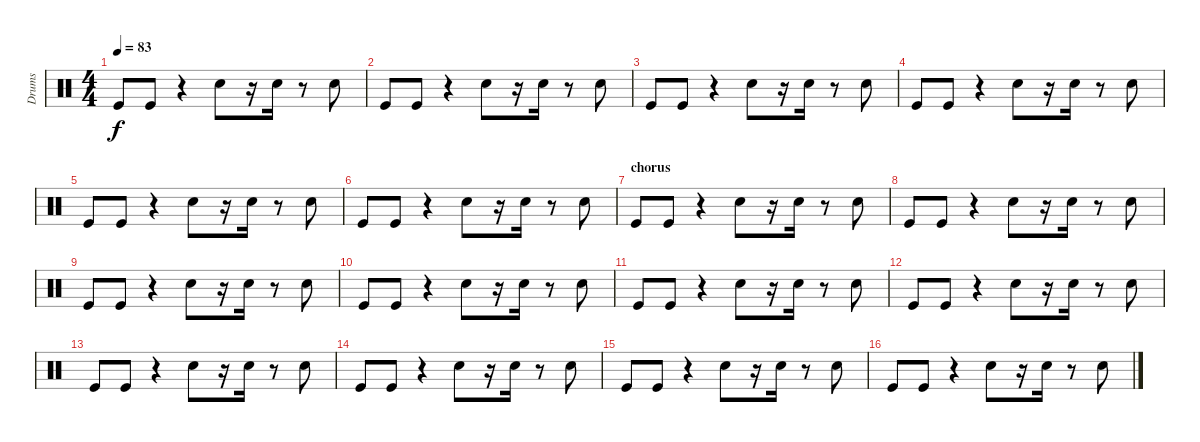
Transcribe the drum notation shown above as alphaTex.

\track ("Drums" "Drums") {instrument percussion}
\staff {score}
\articulation defaults
\ts (4 4)
\tempo 83
\clef neutral
\ks c "Kick (hit)".8{dy f} "Kick (hit)".8
r.4 "Snare (hit) 2".8 r.16 "Electric Snare (hit)".16 r.8 "Electric Snare (hit)".8 |
"Kick (hit)".8 "Kick (hit)".8 r.4 "Snare (hit) 2".8 r.16 "Electric Snare (hit)".16 r.8 "Electric Snare (hit)".8 |
"Kick (hit)".8 "Kick (hit)".8 r.4 "Snare (hit) 2".8 r.16 "Electric Snare (hit)".16 r.8 "Electric Snare (hit)".8 |
"Kick (hit)".8 "Kick (hit)".8 r.4 "Snare (hit) 2".8 r.16 "Electric Snare (hit)".16 r.8 "Electric Snare (hit)".8 |
"Kick (hit)".8 "Kick (hit)".8 r.4 "Snare (hit) 2".8 r.16 "Electric Snare (hit)".16 r.8 "Electric Snare (hit)".8 |
"Kick (hit)".8 "Kick (hit)".8 r.4 "Snare (hit) 2".8 r.16 "Electric Snare (hit)".16 r.8 "Electric Snare (hit)".8 |
\section ("" "chorus")
"Kick (hit)".8 "Kick (hit)".8 r.4 "Snare (hit) 2".8 r.16 "Electric Snare (hit)".16 r.8 "Electric Snare (hit)".8 |
"Kick (hit)".8 "Kick (hit)".8 r.4 "Snare (hit) 2".8 r.16 "Electric Snare (hit)".16 r.8 "Electric Snare (hit)".8 |
"Kick (hit)".8 "Kick (hit)".8 r.4 "Snare (hit) 2".8 r.16 "Electric Snare (hit)".16 r.8 "Electric Snare (hit)".8 |
"Kick (hit)".8 "Kick (hit)".8 r.4 "Snare (hit) 2".8 r.16 "Electric Snare (hit)".16 r.8 "Electric Snare (hit)".8 |
"Kick (hit)".8 "Kick (hit)".8 r.4 "Snare (hit) 2".8 r.16 "Electric Snare (hit)".16 r.8 "Electric Snare (hit)".8 |
"Kick (hit)".8 "Kick (hit)".8 r.4 "Snare (hit) 2".8 r.16 "Electric Snare (hit)".16 r.8 "Electric Snare (hit)".8 |
"Kick (hit)".8 "Kick (hit)".8 r.4 "Snare (hit) 2".8 r.16 "Electric Snare (hit)".16 r.8 "Electric Snare (hit)".8 |
"Kick (hit)".8 "Kick (hit)".8 r.4 "Snare (hit) 2".8 r.16 "Electric Snare (hit)".16 r.8 "Electric Snare (hit)".8 |
"Kick (hit)".8 "Kick (hit)".8 r.4 "Snare (hit) 2".8 r.16 "Electric Snare (hit)".16 r.8 "Electric Snare (hit)".8 |
"Kick (hit)".8 "Kick (hit)".8 r.4 "Snare (hit) 2".8 r.16 "Electric Snare (hit)".16 r.8 "Electric Snare (hit)".8
